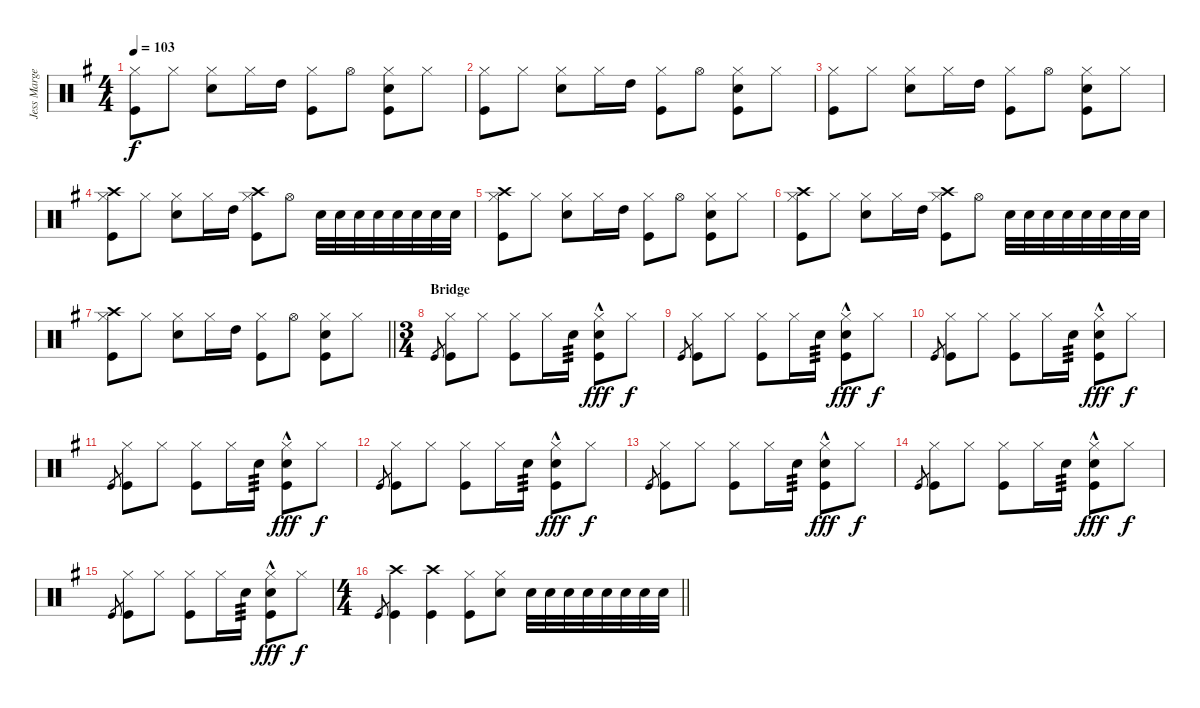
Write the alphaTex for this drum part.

\track ("Jess Margera" "Jess Marge") {instrument percussion}
\staff {score}
\articulation defaults
\ts (4 4)
\tempo 103
\clef neutral
\ks g
("Hi-Hat (closed)" "Kick (hit)").8{dy f} "Hi-Hat (closed)".8 ("Hi-Hat (closed)" "Snare (hit) 2").8 "Hi-Hat (closed)".16 "High Tom (hit)".16 ("Hi-Hat (closed)" "Kick (hit)").8 "Hi-Hat (open)".8 ("Hi-Hat (closed)" "Snare (hit) 2" "Kick (hit)").8 "Hi-Hat (closed)".8 |
("Hi-Hat (closed)" "Kick (hit)").8 "Hi-Hat (closed)".8 ("Hi-Hat (closed)" "Snare (hit) 2").8 "Hi-Hat (closed)".16 "High Tom (hit)".16 ("Hi-Hat (closed)" "Kick (hit)").8 "Hi-Hat (open)".8 ("Hi-Hat (closed)" "Snare (hit) 2" "Kick (hit)").8 "Hi-Hat (closed)".8 |
("Hi-Hat (closed)" "Kick (hit)").8 "Hi-Hat (closed)".8 ("Hi-Hat (closed)" "Snare (hit) 2").8 "Hi-Hat (closed)".16 "High Tom (hit)".16 ("Hi-Hat (closed)" "Kick (hit)").8 "Hi-Hat (open)".8 ("Hi-Hat (closed)" "Snare (hit) 2" "Kick (hit)").8 "Hi-Hat (closed)".8 |
("Crash high (hit)" "Hi-Hat (closed)" "Kick (hit)").8 "Hi-Hat (closed)".8 ("Hi-Hat (closed)" "Snare (hit) 2").8 "Hi-Hat (closed)".16 "High Tom (hit)".16 ("Crash high (hit)" "Hi-Hat (closed)" "Kick (hit)").8 "Hi-Hat (open)".8 "Snare (hit) 2".32 "Snare (hit) 2".32 "Snare (hit) 2".32 "Snare (hit) 2".32 "Snare (hit) 2".32 "Snare (hit) 2".32 "Snare (hit) 2".32 "Snare (hit) 2".32 |
("Crash high (hit)" "Hi-Hat (closed)" "Kick (hit)").8 "Hi-Hat (closed)".8 ("Hi-Hat (closed)" "Snare (hit) 2").8 "Hi-Hat (closed)".16 "High Tom (hit)".16 ("Hi-Hat (closed)" "Kick (hit)").8 "Hi-Hat (open)".8 ("Hi-Hat (closed)" "Snare (hit) 2" "Kick (hit)").8 "Hi-Hat (closed)".8 |
("Crash high (hit)" "Hi-Hat (closed)" "Kick (hit)").8 "Hi-Hat (closed)".8 ("Hi-Hat (closed)" "Snare (hit) 2").8 "Hi-Hat (closed)".16 "High Tom (hit)".16 ("Crash high (hit)" "Hi-Hat (closed)" "Kick (hit)").8 "Hi-Hat (open)".8 "Snare (hit) 2".32 "Snare (hit) 2".32 "Snare (hit) 2".32 "Snare (hit) 2".32 "Snare (hit) 2".32 "Snare (hit) 2".32 "Snare (hit) 2".32 "Snare (hit) 2".32 |
\barLineRight lightlight
("Crash high (hit)" "Hi-Hat (closed)" "Kick (hit)").8 "Hi-Hat (closed)".8 ("Hi-Hat (closed)" "Snare (hit) 2").8 "Hi-Hat (closed)".16 "High Tom (hit)".16 ("Hi-Hat (closed)" "Kick (hit)").8 "Hi-Hat (open)".8 ("Hi-Hat (closed)" "Snare (hit) 2" "Kick (hit)").8 "Hi-Hat (closed)".8 |
\ts (3 4)
\section ("" "Bridge")
"Kick (hit)".8{gr} ("Hi-Hat (closed)" "Kick (hit)").8 "Hi-Hat (closed)".8 ("Hi-Hat (closed)" "Kick (hit)").8 "Hi-Hat (closed)".16 "Snare (hit) 2".16{tp 3} ("Hi-Hat (closed)"{hac} "Snare (hit) 2"{hac} "Kick (hit)"{hac}).8{dy fff} "Hi-Hat (closed)".8{dy f} |
"Kick (hit)".8{gr} ("Hi-Hat (closed)" "Kick (hit)").8 "Hi-Hat (closed)".8 ("Hi-Hat (closed)" "Kick (hit)").8 "Hi-Hat (closed)".16 "Snare (hit) 2".16{tp 3} ("Hi-Hat (closed)"{hac} "Snare (hit) 2"{hac} "Kick (hit)"{hac}).8{dy fff} "Hi-Hat (closed)".8{dy f} |
"Kick (hit)".8{gr} ("Hi-Hat (closed)" "Kick (hit)").8 "Hi-Hat (closed)".8 ("Hi-Hat (closed)" "Kick (hit)").8 "Hi-Hat (closed)".16 "Snare (hit) 2".16{tp 3} ("Hi-Hat (closed)"{hac} "Snare (hit) 2"{hac} "Kick (hit)"{hac}).8{dy fff} "Hi-Hat (closed)".8{dy f} |
"Kick (hit)".8{gr} ("Hi-Hat (closed)" "Kick (hit)").8 "Hi-Hat (closed)".8 ("Hi-Hat (closed)" "Kick (hit)").8 "Hi-Hat (closed)".16 "Snare (hit) 2".16{tp 3} ("Hi-Hat (closed)"{hac} "Snare (hit) 2"{hac} "Kick (hit)"{hac}).8{dy fff} "Hi-Hat (closed)".8{dy f} |
"Kick (hit)".8{gr} ("Hi-Hat (closed)" "Kick (hit)").8 "Hi-Hat (closed)".8 ("Hi-Hat (closed)" "Kick (hit)").8 "Hi-Hat (closed)".16 "Snare (hit) 2".16{tp 3} ("Hi-Hat (closed)"{hac} "Snare (hit) 2"{hac} "Kick (hit)"{hac}).8{dy fff} "Hi-Hat (closed)".8{dy f} |
"Kick (hit)".8{gr} ("Hi-Hat (closed)" "Kick (hit)").8 "Hi-Hat (closed)".8 ("Hi-Hat (closed)" "Kick (hit)").8 "Hi-Hat (closed)".16 "Snare (hit) 2".16{tp 3} ("Hi-Hat (closed)"{hac} "Snare (hit) 2"{hac} "Kick (hit)"{hac}).8{dy fff} "Hi-Hat (closed)".8{dy f} |
"Kick (hit)".8{gr} ("Hi-Hat (closed)" "Kick (hit)").8 "Hi-Hat (closed)".8 ("Hi-Hat (closed)" "Kick (hit)").8 "Hi-Hat (closed)".16 "Snare (hit) 2".16{tp 3} ("Hi-Hat (closed)"{hac} "Snare (hit) 2"{hac} "Kick (hit)"{hac}).8{dy fff} "Hi-Hat (closed)".8{dy f} |
"Kick (hit)".8{gr} ("Hi-Hat (closed)" "Kick (hit)").8 "Hi-Hat (closed)".8 ("Hi-Hat (closed)" "Kick (hit)").8 "Hi-Hat (closed)".16 "Snare (hit) 2".16{tp 3} ("Hi-Hat (closed)"{hac} "Snare (hit) 2"{hac} "Kick (hit)"{hac}).8{dy fff} "Hi-Hat (closed)".8{dy f} |
\ts (4 4)
\barLineRight lightlight "Kick (hit)".8{gr}
("Crash high (hit)" "Kick (hit)").4 ("Crash high (hit)" "Kick (hit)").4 ("Hi-Hat (closed)" "Kick (hit)").8 ("Hi-Hat (closed)" "Snare (hit) 2").8 "Snare (hit) 2".32 "Snare (hit) 2".32 "Snare (hit) 2".32 "Snare (hit) 2".32 "Snare (hit) 2".32 "Snare (hit) 2".32 "Snare (hit) 2".32 "Snare (hit) 2".32
